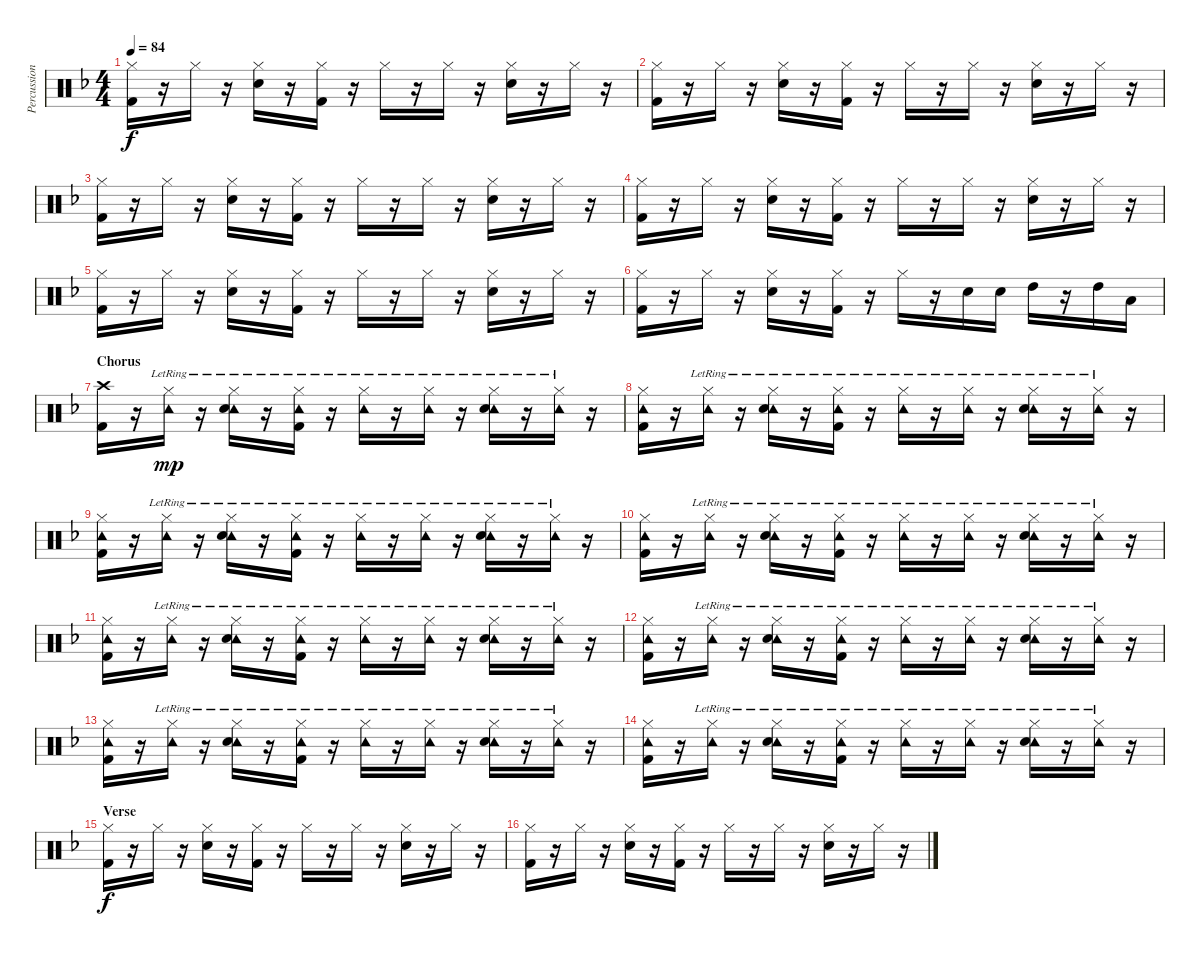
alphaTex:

\track ("Percussion" "Percussion") {instrument percussion}
\staff {score}
\articulation defaults
\ts (4 4)
\tempo 84
\clef neutral
\ks f
("Hi-Hat (closed)" "Kick (hit) 2").16{dy f} r.16 "Hi-Hat (closed)".16 r.16 ("Hi-Hat (closed)" "Snare (hit) 2").16 r.16 ("Hi-Hat (closed)" "Kick (hit) 2").16 r.16 "Hi-Hat (closed)".16 r.16 "Hi-Hat (closed)".16 r.16 ("Hi-Hat (closed)" "Snare (hit) 2").16 r.16 "Hi-Hat (closed)".16 r.16 |
("Hi-Hat (closed)" "Kick (hit) 2").16 r.16 "Hi-Hat (closed)".16 r.16 ("Hi-Hat (closed)" "Snare (hit) 2").16 r.16 ("Hi-Hat (closed)" "Kick (hit) 2").16 r.16 "Hi-Hat (closed)".16 r.16 "Hi-Hat (closed)".16 r.16 ("Hi-Hat (closed)" "Snare (hit) 2").16 r.16 "Hi-Hat (closed)".16 r.16 |
("Hi-Hat (closed)" "Kick (hit) 2").16 r.16 "Hi-Hat (closed)".16 r.16 ("Hi-Hat (closed)" "Snare (hit) 2").16 r.16 ("Hi-Hat (closed)" "Kick (hit) 2").16 r.16 "Hi-Hat (closed)".16 r.16 "Hi-Hat (closed)".16 r.16 ("Hi-Hat (closed)" "Snare (hit) 2").16 r.16 "Hi-Hat (closed)".16 r.16 |
("Hi-Hat (closed)" "Kick (hit) 2").16 r.16 "Hi-Hat (closed)".16 r.16 ("Hi-Hat (closed)" "Snare (hit) 2").16 r.16 ("Hi-Hat (closed)" "Kick (hit) 2").16 r.16 "Hi-Hat (closed)".16 r.16 "Hi-Hat (closed)".16 r.16 ("Hi-Hat (closed)" "Snare (hit) 2").16 r.16 "Hi-Hat (closed)".16 r.16 |
("Hi-Hat (closed)" "Kick (hit) 2").16 r.16 "Hi-Hat (closed)".16 r.16 ("Hi-Hat (closed)" "Snare (hit) 2").16 r.16 ("Hi-Hat (closed)" "Kick (hit) 2").16 r.16 "Hi-Hat (closed)".16 r.16 "Hi-Hat (closed)".16 r.16 ("Hi-Hat (closed)" "Snare (hit) 2").16 r.16 "Hi-Hat (closed)".16 r.16 |
("Hi-Hat (closed)" "Kick (hit) 2").16 r.16 "Hi-Hat (closed)".16 r.16 ("Hi-Hat (closed)" "Snare (hit) 2").16 r.16 ("Hi-Hat (closed)" "Kick (hit) 2").16 r.16 "Hi-Hat (closed)".16 r.16 "Snare (hit) 2".16 "Snare (hit) 2".16 "High Tom (hit)".16 r.16 "High Tom (hit)".16 "Low Tom (hit)".16 |
\section ("" "Chorus")
("Crash high (hit)" "Kick (hit) 2").16 r.16 ("Hi-Hat (closed)" "Tambourine (hit)"{lr}).16{dy mp} r.16 ("Hi-Hat (closed)" "Tambourine (hit)"{lr} "Snare (hit) 2").16 r.16 ("Hi-Hat (closed)" "Tambourine (hit)"{lr} "Kick (hit) 2").16 r.16 ("Hi-Hat (closed)" "Tambourine (hit)"{lr}).16 r.16 ("Hi-Hat (closed)" "Tambourine (hit)"{lr}).16 r.16 ("Hi-Hat (closed)" "Tambourine (hit)"{lr} "Snare (hit) 2").16 r.16 ("Hi-Hat (closed)" "Tambourine (hit)"{lr}).16 r.16 |
("Hi-Hat (closed)" "Tambourine (hit)" "Kick (hit) 2").16 r.16 ("Hi-Hat (closed)" "Tambourine (hit)"{lr}).16 r.16 ("Hi-Hat (closed)" "Tambourine (hit)"{lr} "Snare (hit) 2").16 r.16 ("Hi-Hat (closed)" "Tambourine (hit)"{lr} "Kick (hit) 2").16 r.16 ("Hi-Hat (closed)" "Tambourine (hit)"{lr}).16 r.16 ("Hi-Hat (closed)" "Tambourine (hit)"{lr}).16 r.16 ("Hi-Hat (closed)" "Tambourine (hit)"{lr} "Snare (hit) 2").16 r.16 ("Hi-Hat (closed)" "Tambourine (hit)"{lr}).16 r.16 |
("Hi-Hat (closed)" "Tambourine (hit)" "Kick (hit) 2").16 r.16 ("Hi-Hat (closed)" "Tambourine (hit)"{lr}).16 r.16 ("Hi-Hat (closed)" "Tambourine (hit)"{lr} "Snare (hit) 2").16 r.16 ("Hi-Hat (closed)" "Tambourine (hit)"{lr} "Kick (hit) 2").16 r.16 ("Hi-Hat (closed)" "Tambourine (hit)"{lr}).16 r.16 ("Hi-Hat (closed)" "Tambourine (hit)"{lr}).16 r.16 ("Hi-Hat (closed)" "Tambourine (hit)"{lr} "Snare (hit) 2").16 r.16 ("Hi-Hat (closed)" "Tambourine (hit)"{lr}).16 r.16 |
("Hi-Hat (closed)" "Tambourine (hit)" "Kick (hit) 2").16 r.16 ("Hi-Hat (closed)" "Tambourine (hit)"{lr}).16 r.16 ("Hi-Hat (closed)" "Tambourine (hit)"{lr} "Snare (hit) 2").16 r.16 ("Hi-Hat (closed)" "Tambourine (hit)"{lr} "Kick (hit) 2").16 r.16 ("Hi-Hat (closed)" "Tambourine (hit)"{lr}).16 r.16 ("Hi-Hat (closed)" "Tambourine (hit)"{lr}).16 r.16 ("Hi-Hat (closed)" "Tambourine (hit)"{lr} "Snare (hit) 2").16 r.16 ("Hi-Hat (closed)" "Tambourine (hit)"{lr}).16 r.16 |
("Hi-Hat (closed)" "Tambourine (hit)" "Kick (hit) 2").16 r.16 ("Hi-Hat (closed)" "Tambourine (hit)"{lr}).16 r.16 ("Hi-Hat (closed)" "Tambourine (hit)"{lr} "Snare (hit) 2").16 r.16 ("Hi-Hat (closed)" "Tambourine (hit)"{lr} "Kick (hit) 2").16 r.16 ("Hi-Hat (closed)" "Tambourine (hit)"{lr}).16 r.16 ("Hi-Hat (closed)" "Tambourine (hit)"{lr}).16 r.16 ("Hi-Hat (closed)" "Tambourine (hit)"{lr} "Snare (hit) 2").16 r.16 ("Hi-Hat (closed)" "Tambourine (hit)"{lr}).16 r.16 |
("Hi-Hat (closed)" "Tambourine (hit)" "Kick (hit) 2").16 r.16 ("Hi-Hat (closed)" "Tambourine (hit)"{lr}).16 r.16 ("Hi-Hat (closed)" "Tambourine (hit)"{lr} "Snare (hit) 2").16 r.16 ("Hi-Hat (closed)" "Tambourine (hit)"{lr} "Kick (hit) 2").16 r.16 ("Hi-Hat (closed)" "Tambourine (hit)"{lr}).16 r.16 ("Hi-Hat (closed)" "Tambourine (hit)"{lr}).16 r.16 ("Hi-Hat (closed)" "Tambourine (hit)"{lr} "Snare (hit) 2").16 r.16 ("Hi-Hat (closed)" "Tambourine (hit)"{lr}).16 r.16 |
("Hi-Hat (closed)" "Tambourine (hit)" "Kick (hit) 2").16 r.16 ("Hi-Hat (closed)" "Tambourine (hit)"{lr}).16 r.16 ("Hi-Hat (closed)" "Tambourine (hit)"{lr} "Snare (hit) 2").16 r.16 ("Hi-Hat (closed)" "Tambourine (hit)"{lr} "Kick (hit) 2").16 r.16 ("Hi-Hat (closed)" "Tambourine (hit)"{lr}).16 r.16 ("Hi-Hat (closed)" "Tambourine (hit)"{lr}).16 r.16 ("Hi-Hat (closed)" "Tambourine (hit)"{lr} "Snare (hit) 2").16 r.16 ("Hi-Hat (closed)" "Tambourine (hit)"{lr}).16 r.16 |
("Hi-Hat (closed)" "Tambourine (hit)" "Kick (hit) 2").16 r.16 ("Hi-Hat (closed)" "Tambourine (hit)"{lr}).16 r.16 ("Hi-Hat (closed)" "Tambourine (hit)"{lr} "Snare (hit) 2").16 r.16 ("Hi-Hat (closed)" "Tambourine (hit)"{lr} "Kick (hit) 2").16 r.16 ("Hi-Hat (closed)" "Tambourine (hit)"{lr}).16 r.16 ("Hi-Hat (closed)" "Tambourine (hit)"{lr}).16 r.16 ("Hi-Hat (closed)" "Tambourine (hit)"{lr} "Snare (hit) 2").16 r.16 ("Hi-Hat (closed)" "Tambourine (hit)"{lr}).16 r.16 |
\section ("" "Verse")
("Hi-Hat (closed)" "Kick (hit) 2").16{dy f} r.16 "Hi-Hat (closed)".16 r.16 ("Hi-Hat (closed)" "Snare (hit) 2").16 r.16 ("Hi-Hat (closed)" "Kick (hit) 2").16 r.16 "Hi-Hat (closed)".16 r.16 "Hi-Hat (closed)".16 r.16 ("Hi-Hat (closed)" "Snare (hit) 2").16 r.16 "Hi-Hat (closed)".16 r.16 |
("Hi-Hat (closed)" "Kick (hit) 2").16 r.16 "Hi-Hat (closed)".16 r.16 ("Hi-Hat (closed)" "Snare (hit) 2").16 r.16 ("Hi-Hat (closed)" "Kick (hit) 2").16 r.16 "Hi-Hat (closed)".16 r.16 "Hi-Hat (closed)".16 r.16 ("Hi-Hat (closed)" "Snare (hit) 2").16 r.16 "Hi-Hat (closed)".16 r.16
